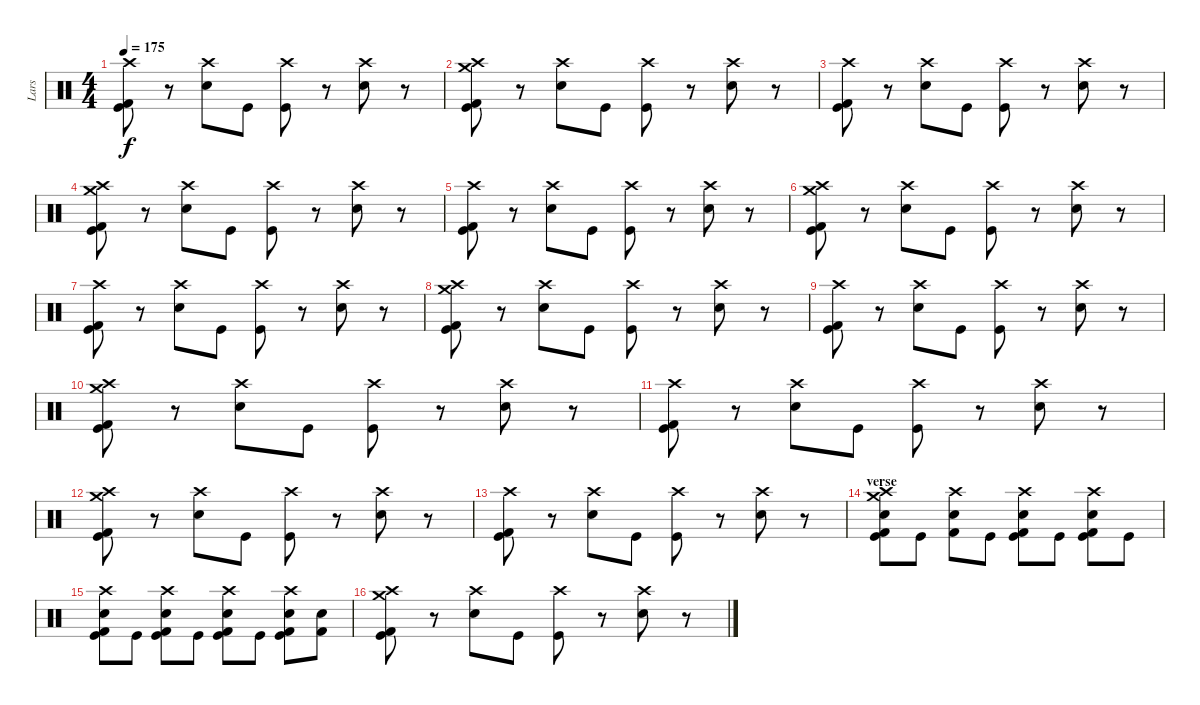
\track ("Lars" "Lars") {instrument percussion}
\staff {score}
\articulation defaults
\ts (4 4)
\tempo 175
\clef neutral
\ks c
("Crash high (hit)" "Kick (hit) 2" "Kick (hit)").8{dy f} r.8 ("Crash high (hit)" "Snare (hit) 2").8 "Kick (hit)".8 ("Crash high (hit)" "Kick (hit)").8 r.8 ("Crash high (hit)" "Snare (hit) 2").8 r.8 |
("Crash high (hit)" "Crash medium (hit)" "Kick (hit) 2" "Kick (hit)").8 r.8 ("Crash high (hit)" "Snare (hit) 2").8 "Kick (hit)".8 ("Crash high (hit)" "Kick (hit)").8 r.8 ("Crash high (hit)" "Snare (hit) 2").8 r.8 |
("Crash high (hit)" "Kick (hit) 2" "Kick (hit)").8 r.8 ("Crash high (hit)" "Snare (hit) 2").8 "Kick (hit)".8 ("Crash high (hit)" "Kick (hit)").8 r.8 ("Crash high (hit)" "Snare (hit) 2").8 r.8 |
("Crash high (hit)" "Crash medium (hit)" "Kick (hit) 2" "Kick (hit)").8 r.8 ("Crash high (hit)" "Snare (hit) 2").8 "Kick (hit)".8 ("Crash high (hit)" "Kick (hit)").8 r.8 ("Crash high (hit)" "Snare (hit) 2").8 r.8 |
("Crash high (hit)" "Kick (hit) 2" "Kick (hit)").8 r.8 ("Crash high (hit)" "Snare (hit) 2").8 "Kick (hit)".8 ("Crash high (hit)" "Kick (hit)").8 r.8 ("Crash high (hit)" "Snare (hit) 2").8 r.8 |
("Crash high (hit)" "Crash medium (hit)" "Kick (hit) 2" "Kick (hit)").8 r.8 ("Crash high (hit)" "Snare (hit) 2").8 "Kick (hit)".8 ("Crash high (hit)" "Kick (hit)").8 r.8 ("Crash high (hit)" "Snare (hit) 2").8 r.8 |
("Crash high (hit)" "Kick (hit) 2" "Kick (hit)").8 r.8 ("Crash high (hit)" "Snare (hit) 2").8 "Kick (hit)".8 ("Crash high (hit)" "Kick (hit)").8 r.8 ("Crash high (hit)" "Snare (hit) 2").8 r.8 |
("Crash high (hit)" "Crash medium (hit)" "Kick (hit) 2" "Kick (hit)").8 r.8 ("Crash high (hit)" "Snare (hit) 2").8 "Kick (hit)".8 ("Crash high (hit)" "Kick (hit)").8 r.8 ("Crash high (hit)" "Snare (hit) 2").8 r.8 |
("Crash high (hit)" "Kick (hit) 2" "Kick (hit)").8 r.8 ("Crash high (hit)" "Snare (hit) 2").8 "Kick (hit)".8 ("Crash high (hit)" "Kick (hit)").8 r.8 ("Crash high (hit)" "Snare (hit) 2").8 r.8 |
("Crash high (hit)" "Crash medium (hit)" "Kick (hit) 2" "Kick (hit)").8 r.8 ("Crash high (hit)" "Snare (hit) 2").8 "Kick (hit)".8 ("Crash high (hit)" "Kick (hit)").8 r.8 ("Crash high (hit)" "Snare (hit) 2").8 r.8 |
("Crash high (hit)" "Kick (hit) 2" "Kick (hit)").8 r.8 ("Crash high (hit)" "Snare (hit) 2").8 "Kick (hit)".8 ("Crash high (hit)" "Kick (hit)").8 r.8 ("Crash high (hit)" "Snare (hit) 2").8 r.8 |
("Crash high (hit)" "Crash medium (hit)" "Kick (hit) 2" "Kick (hit)").8 r.8 ("Crash high (hit)" "Snare (hit) 2").8 "Kick (hit)".8 ("Crash high (hit)" "Kick (hit)").8 r.8 ("Crash high (hit)" "Snare (hit) 2").8 r.8 |
("Crash high (hit)" "Kick (hit) 2" "Kick (hit)").8 r.8 ("Crash high (hit)" "Snare (hit) 2").8 "Kick (hit)".8 ("Crash high (hit)" "Kick (hit)").8 r.8 ("Crash high (hit)" "Snare (hit) 2").8 r.8 |
\section ("" "verse")
("Crash high (hit)" "Snare (hit) 2" "Crash medium (hit)" "Kick (hit) 2" "Kick (hit)").8 "Kick (hit)".8 ("Crash high (hit)" "Snare (hit) 2" "Kick (hit) 2").8 "Kick (hit)".8 ("Crash high (hit)" "Snare (hit) 2" "Kick (hit) 2" "Kick (hit)").8 "Kick (hit)".8 ("Crash high (hit)" "Snare (hit) 2" "Kick (hit) 2" "Kick (hit)").8 "Kick (hit)".8 |
("Crash high (hit)" "Snare (hit) 2" "Kick (hit) 2" "Kick (hit)").8 "Kick (hit)".8 ("Crash high (hit)" "Snare (hit) 2" "Kick (hit) 2" "Kick (hit)").8 "Kick (hit)".8 ("Crash high (hit)" "Snare (hit) 2" "Kick (hit) 2" "Kick (hit)").8 "Kick (hit)".8 ("Crash high (hit)" "Snare (hit) 2" "Kick (hit) 2" "Kick (hit)").8 ("Snare (hit) 2" "Kick (hit) 2").8 |
("Crash high (hit)" "Crash medium (hit)" "Kick (hit) 2" "Kick (hit)").8 r.8 ("Crash high (hit)" "Snare (hit) 2").8 "Kick (hit)".8 ("Crash high (hit)" "Kick (hit)").8 r.8 ("Crash high (hit)" "Snare (hit) 2").8 r.8
